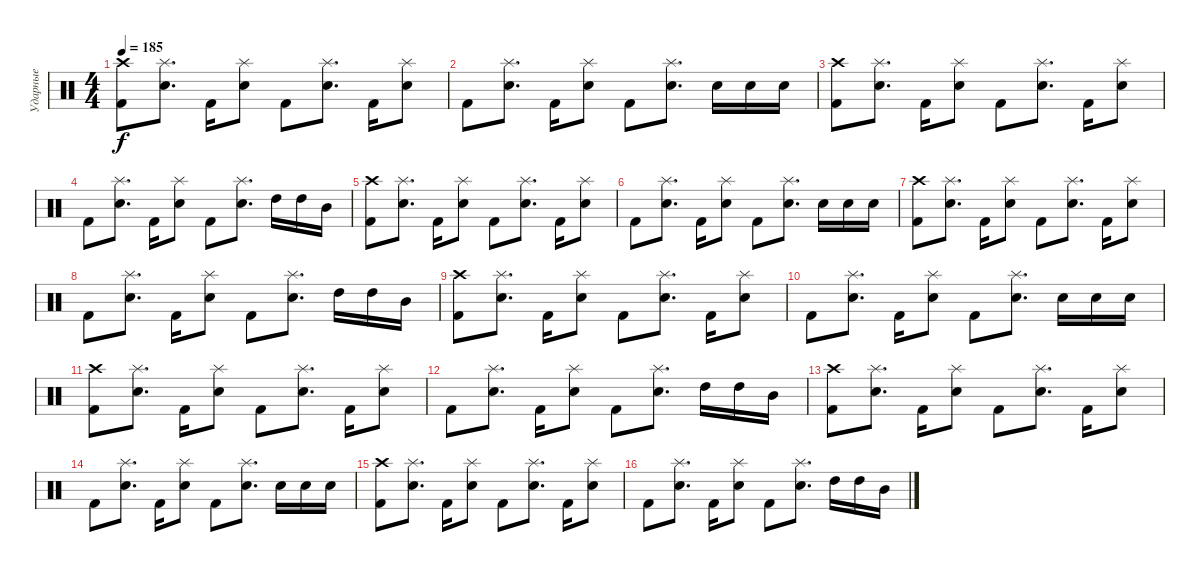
\track ("Ударные" "Ударные") {instrument percussion}
\staff {score}
\articulation defaults
\ts (4 4)
\tempo 185
\clef neutral
\ks c
("Crash high (hit)" "Kick (hit) 2").8{dy f} ("Splash (hit)" "Electric Snare (hit)").8{d} "Kick (hit) 2".16 ("Splash (hit)" "Electric Snare (hit)").8 "Kick (hit) 2".8 ("Splash (hit)" "Electric Snare (hit)").8{d} "Kick (hit) 2".16 ("Splash (hit)" "Electric Snare (hit)").8 |
"Kick (hit) 2".8 ("Splash (hit)" "Electric Snare (hit)").8{d} "Kick (hit) 2".16 ("Splash (hit)" "Electric Snare (hit)").8 "Kick (hit) 2".8 ("Splash (hit)" "Electric Snare (hit)").8{d} "Electric Snare (hit)".16 "Electric Snare (hit)".16 "Electric Snare (hit)".16 |
("Crash high (hit)" "Kick (hit) 2").8 ("Splash (hit)" "Electric Snare (hit)").8{d} "Kick (hit) 2".16 ("Splash (hit)" "Electric Snare (hit)").8 "Kick (hit) 2".8 ("Splash (hit)" "Electric Snare (hit)").8{d} "Kick (hit) 2".16 ("Splash (hit)" "Electric Snare (hit)").8 |
"Kick (hit) 2".8 ("Splash (hit)" "Electric Snare (hit)").8{d} "Kick (hit) 2".16 ("Splash (hit)" "Electric Snare (hit)").8 "Kick (hit) 2".8 ("Splash (hit)" "Electric Snare (hit)").8{d} "High Tom (hit)".16 "High Tom (hit)".16 "Mid Tom (hit)".16 |
("Crash high (hit)" "Kick (hit) 2").8 ("Splash (hit)" "Electric Snare (hit)").8{d} "Kick (hit) 2".16 ("Splash (hit)" "Electric Snare (hit)").8 "Kick (hit) 2".8 ("Splash (hit)" "Electric Snare (hit)").8{d} "Kick (hit) 2".16 ("Splash (hit)" "Electric Snare (hit)").8 |
"Kick (hit) 2".8 ("Splash (hit)" "Electric Snare (hit)").8{d} "Kick (hit) 2".16 ("Splash (hit)" "Electric Snare (hit)").8 "Kick (hit) 2".8 ("Splash (hit)" "Electric Snare (hit)").8{d} "Electric Snare (hit)".16 "Electric Snare (hit)".16 "Electric Snare (hit)".16 |
("Crash high (hit)" "Kick (hit) 2").8 ("Splash (hit)" "Electric Snare (hit)").8{d} "Kick (hit) 2".16 ("Splash (hit)" "Electric Snare (hit)").8 "Kick (hit) 2".8 ("Splash (hit)" "Electric Snare (hit)").8{d} "Kick (hit) 2".16 ("Splash (hit)" "Electric Snare (hit)").8 |
"Kick (hit) 2".8 ("Splash (hit)" "Electric Snare (hit)").8{d} "Kick (hit) 2".16 ("Splash (hit)" "Electric Snare (hit)").8 "Kick (hit) 2".8 ("Splash (hit)" "Electric Snare (hit)").8{d} "High Tom (hit)".16 "High Tom (hit)".16 "Mid Tom (hit)".16 |
("Crash high (hit)" "Kick (hit) 2").8 ("Splash (hit)" "Electric Snare (hit)").8{d} "Kick (hit) 2".16 ("Splash (hit)" "Electric Snare (hit)").8 "Kick (hit) 2".8 ("Splash (hit)" "Electric Snare (hit)").8{d} "Kick (hit) 2".16 ("Splash (hit)" "Electric Snare (hit)").8 |
"Kick (hit) 2".8 ("Splash (hit)" "Electric Snare (hit)").8{d} "Kick (hit) 2".16 ("Splash (hit)" "Electric Snare (hit)").8 "Kick (hit) 2".8 ("Splash (hit)" "Electric Snare (hit)").8{d} "Electric Snare (hit)".16 "Electric Snare (hit)".16 "Electric Snare (hit)".16 |
("Crash high (hit)" "Kick (hit) 2").8 ("Splash (hit)" "Electric Snare (hit)").8{d} "Kick (hit) 2".16 ("Splash (hit)" "Electric Snare (hit)").8 "Kick (hit) 2".8 ("Splash (hit)" "Electric Snare (hit)").8{d} "Kick (hit) 2".16 ("Splash (hit)" "Electric Snare (hit)").8 |
"Kick (hit) 2".8 ("Splash (hit)" "Electric Snare (hit)").8{d} "Kick (hit) 2".16 ("Splash (hit)" "Electric Snare (hit)").8 "Kick (hit) 2".8 ("Splash (hit)" "Electric Snare (hit)").8{d} "High Tom (hit)".16 "High Tom (hit)".16 "Mid Tom (hit)".16 |
("Crash high (hit)" "Kick (hit) 2").8 ("Splash (hit)" "Electric Snare (hit)").8{d} "Kick (hit) 2".16 ("Splash (hit)" "Electric Snare (hit)").8 "Kick (hit) 2".8 ("Splash (hit)" "Electric Snare (hit)").8{d} "Kick (hit) 2".16 ("Splash (hit)" "Electric Snare (hit)").8 |
"Kick (hit) 2".8 ("Splash (hit)" "Electric Snare (hit)").8{d} "Kick (hit) 2".16 ("Splash (hit)" "Electric Snare (hit)").8 "Kick (hit) 2".8 ("Splash (hit)" "Electric Snare (hit)").8{d} "Electric Snare (hit)".16 "Electric Snare (hit)".16 "Electric Snare (hit)".16 |
("Crash high (hit)" "Kick (hit) 2").8 ("Splash (hit)" "Electric Snare (hit)").8{d} "Kick (hit) 2".16 ("Splash (hit)" "Electric Snare (hit)").8 "Kick (hit) 2".8 ("Splash (hit)" "Electric Snare (hit)").8{d} "Kick (hit) 2".16 ("Splash (hit)" "Electric Snare (hit)").8 |
"Kick (hit) 2".8 ("Splash (hit)" "Electric Snare (hit)").8{d} "Kick (hit) 2".16 ("Splash (hit)" "Electric Snare (hit)").8 "Kick (hit) 2".8 ("Splash (hit)" "Electric Snare (hit)").8{d} "High Tom (hit)".16 "High Tom (hit)".16 "Mid Tom (hit)".16
